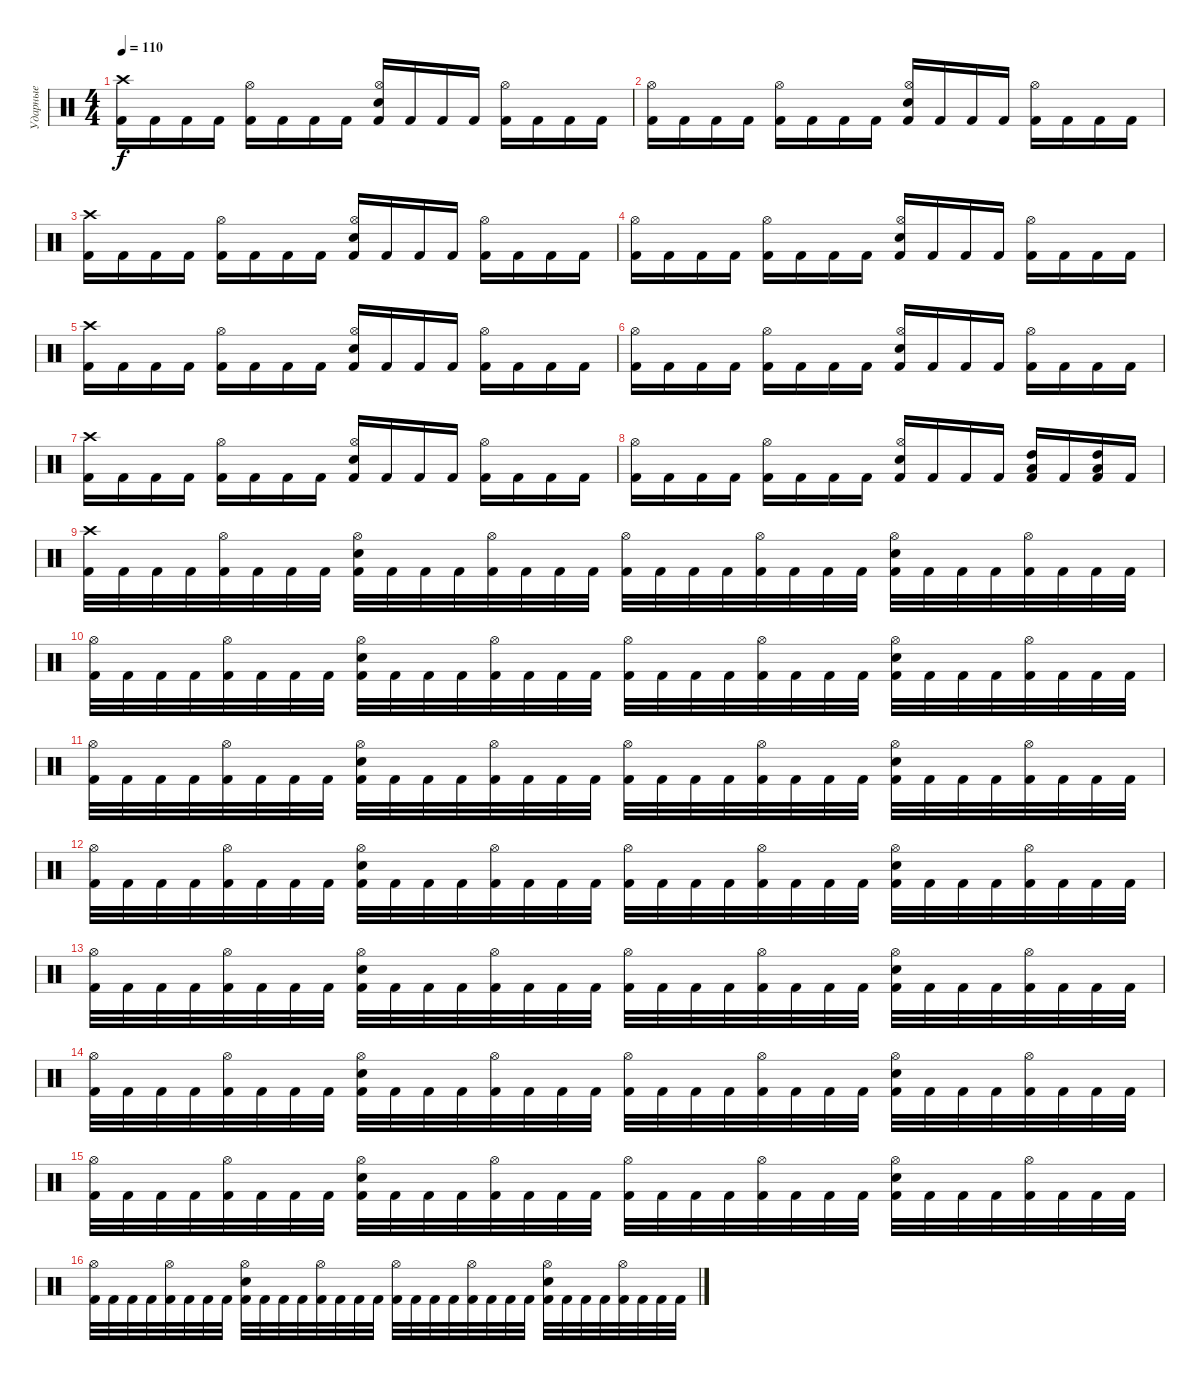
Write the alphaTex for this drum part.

\track ("Ударные" "Ударные") {instrument percussion}
\staff {score}
\articulation defaults
\ts (4 4)
\tempo 110
\clef neutral
\ks c
("Kick (hit) 2" "Crash high (hit)").16{dy f} "Kick (hit) 2".16 "Kick (hit) 2".16 "Kick (hit) 2".16 ("Kick (hit) 2" "Hi-Hat (open)").16 "Kick (hit) 2".16 "Kick (hit) 2".16 "Kick (hit) 2".16 ("Kick (hit) 2" "Hi-Hat (open)" "Snare (hit) 2").16 "Kick (hit) 2".16 "Kick (hit) 2".16 "Kick (hit) 2".16 ("Kick (hit) 2" "Hi-Hat (open)").16 "Kick (hit) 2".16 "Kick (hit) 2".16 "Kick (hit) 2".16 |
("Kick (hit) 2" "Hi-Hat (open)").16 "Kick (hit) 2".16 "Kick (hit) 2".16 "Kick (hit) 2".16 ("Kick (hit) 2" "Hi-Hat (open)").16 "Kick (hit) 2".16 "Kick (hit) 2".16 "Kick (hit) 2".16 ("Kick (hit) 2" "Hi-Hat (open)" "Snare (hit) 2").16 "Kick (hit) 2".16 "Kick (hit) 2".16 "Kick (hit) 2".16 ("Kick (hit) 2" "Hi-Hat (open)").16 "Kick (hit) 2".16 "Kick (hit) 2".16 "Kick (hit) 2".16 |
("Kick (hit) 2" "Crash high (hit)").16 "Kick (hit) 2".16 "Kick (hit) 2".16 "Kick (hit) 2".16 ("Kick (hit) 2" "Hi-Hat (open)").16 "Kick (hit) 2".16 "Kick (hit) 2".16 "Kick (hit) 2".16 ("Kick (hit) 2" "Hi-Hat (open)" "Snare (hit) 2").16 "Kick (hit) 2".16 "Kick (hit) 2".16 "Kick (hit) 2".16 ("Kick (hit) 2" "Hi-Hat (open)").16 "Kick (hit) 2".16 "Kick (hit) 2".16 "Kick (hit) 2".16 |
("Kick (hit) 2" "Hi-Hat (open)").16 "Kick (hit) 2".16 "Kick (hit) 2".16 "Kick (hit) 2".16 ("Kick (hit) 2" "Hi-Hat (open)").16 "Kick (hit) 2".16 "Kick (hit) 2".16 "Kick (hit) 2".16 ("Kick (hit) 2" "Hi-Hat (open)" "Snare (hit) 2").16 "Kick (hit) 2".16 "Kick (hit) 2".16 "Kick (hit) 2".16 ("Kick (hit) 2" "Hi-Hat (open)").16 "Kick (hit) 2".16 "Kick (hit) 2".16 "Kick (hit) 2".16 |
("Kick (hit) 2" "Crash high (hit)").16 "Kick (hit) 2".16 "Kick (hit) 2".16 "Kick (hit) 2".16 ("Kick (hit) 2" "Hi-Hat (open)").16 "Kick (hit) 2".16 "Kick (hit) 2".16 "Kick (hit) 2".16 ("Kick (hit) 2" "Hi-Hat (open)" "Snare (hit) 2").16 "Kick (hit) 2".16 "Kick (hit) 2".16 "Kick (hit) 2".16 ("Kick (hit) 2" "Hi-Hat (open)").16 "Kick (hit) 2".16 "Kick (hit) 2".16 "Kick (hit) 2".16 |
("Kick (hit) 2" "Hi-Hat (open)").16 "Kick (hit) 2".16 "Kick (hit) 2".16 "Kick (hit) 2".16 ("Kick (hit) 2" "Hi-Hat (open)").16 "Kick (hit) 2".16 "Kick (hit) 2".16 "Kick (hit) 2".16 ("Kick (hit) 2" "Hi-Hat (open)" "Snare (hit) 2").16 "Kick (hit) 2".16 "Kick (hit) 2".16 "Kick (hit) 2".16 ("Kick (hit) 2" "Hi-Hat (open)").16 "Kick (hit) 2".16 "Kick (hit) 2".16 "Kick (hit) 2".16 |
("Kick (hit) 2" "Crash high (hit)").16 "Kick (hit) 2".16 "Kick (hit) 2".16 "Kick (hit) 2".16 ("Kick (hit) 2" "Hi-Hat (open)").16 "Kick (hit) 2".16 "Kick (hit) 2".16 "Kick (hit) 2".16 ("Kick (hit) 2" "Hi-Hat (open)" "Snare (hit) 2").16 "Kick (hit) 2".16 "Kick (hit) 2".16 "Kick (hit) 2".16 ("Kick (hit) 2" "Hi-Hat (open)").16 "Kick (hit) 2".16 "Kick (hit) 2".16 "Kick (hit) 2".16 |
("Kick (hit) 2" "Hi-Hat (open)").16 "Kick (hit) 2".16 "Kick (hit) 2".16 "Kick (hit) 2".16 ("Kick (hit) 2" "Hi-Hat (open)").16 "Kick (hit) 2".16 "Kick (hit) 2".16 "Kick (hit) 2".16 ("Kick (hit) 2" "Hi-Hat (open)" "Snare (hit) 2").16 "Kick (hit) 2".16 "Kick (hit) 2".16 "Kick (hit) 2".16 ("Kick (hit) 2" "Low Tom (hit)" "High Tom (hit)").16 "Kick (hit) 2".16 ("Kick (hit) 2" "Low Tom (hit)" "High Tom (hit)").16 "Kick (hit) 2".16 |
("Kick (hit) 2" "Crash high (hit)").32 "Kick (hit) 2".32 "Kick (hit) 2".32 "Kick (hit) 2".32 ("Kick (hit) 2" "Hi-Hat (open)").32 "Kick (hit) 2".32 "Kick (hit) 2".32 "Kick (hit) 2".32 ("Kick (hit) 2" "Snare (hit) 2" "Hi-Hat (open)").32 "Kick (hit) 2".32 "Kick (hit) 2".32 "Kick (hit) 2".32 ("Kick (hit) 2" "Hi-Hat (open)").32 "Kick (hit) 2".32 "Kick (hit) 2".32 "Kick (hit) 2".32 ("Kick (hit) 2" "Hi-Hat (open)").32 "Kick (hit) 2".32 "Kick (hit) 2".32 "Kick (hit) 2".32 ("Kick (hit) 2" "Hi-Hat (open)").32 "Kick (hit) 2".32 "Kick (hit) 2".32 "Kick (hit) 2".32 ("Kick (hit) 2" "Snare (hit) 2" "Hi-Hat (open)").32 "Kick (hit) 2".32 "Kick (hit) 2".32 "Kick (hit) 2".32 ("Kick (hit) 2" "Hi-Hat (open)").32 "Kick (hit) 2".32 "Kick (hit) 2".32 "Kick (hit) 2".32 |
("Kick (hit) 2" "Hi-Hat (open)").32 "Kick (hit) 2".32 "Kick (hit) 2".32 "Kick (hit) 2".32 ("Kick (hit) 2" "Hi-Hat (open)").32 "Kick (hit) 2".32 "Kick (hit) 2".32 "Kick (hit) 2".32 ("Kick (hit) 2" "Snare (hit) 2" "Hi-Hat (open)").32 "Kick (hit) 2".32 "Kick (hit) 2".32 "Kick (hit) 2".32 ("Kick (hit) 2" "Hi-Hat (open)").32 "Kick (hit) 2".32 "Kick (hit) 2".32 "Kick (hit) 2".32 ("Kick (hit) 2" "Hi-Hat (open)").32 "Kick (hit) 2".32 "Kick (hit) 2".32 "Kick (hit) 2".32 ("Kick (hit) 2" "Hi-Hat (open)").32 "Kick (hit) 2".32 "Kick (hit) 2".32 "Kick (hit) 2".32 ("Kick (hit) 2" "Snare (hit) 2" "Hi-Hat (open)").32 "Kick (hit) 2".32 "Kick (hit) 2".32 "Kick (hit) 2".32 ("Kick (hit) 2" "Hi-Hat (open)").32 "Kick (hit) 2".32 "Kick (hit) 2".32 "Kick (hit) 2".32 |
("Kick (hit) 2" "Hi-Hat (open)").32 "Kick (hit) 2".32 "Kick (hit) 2".32 "Kick (hit) 2".32 ("Kick (hit) 2" "Hi-Hat (open)").32 "Kick (hit) 2".32 "Kick (hit) 2".32 "Kick (hit) 2".32 ("Kick (hit) 2" "Snare (hit) 2" "Hi-Hat (open)").32 "Kick (hit) 2".32 "Kick (hit) 2".32 "Kick (hit) 2".32 ("Kick (hit) 2" "Hi-Hat (open)").32 "Kick (hit) 2".32 "Kick (hit) 2".32 "Kick (hit) 2".32 ("Kick (hit) 2" "Hi-Hat (open)").32 "Kick (hit) 2".32 "Kick (hit) 2".32 "Kick (hit) 2".32 ("Kick (hit) 2" "Hi-Hat (open)").32 "Kick (hit) 2".32 "Kick (hit) 2".32 "Kick (hit) 2".32 ("Kick (hit) 2" "Snare (hit) 2" "Hi-Hat (open)").32 "Kick (hit) 2".32 "Kick (hit) 2".32 "Kick (hit) 2".32 ("Kick (hit) 2" "Hi-Hat (open)").32 "Kick (hit) 2".32 "Kick (hit) 2".32 "Kick (hit) 2".32 |
("Kick (hit) 2" "Hi-Hat (open)").32 "Kick (hit) 2".32 "Kick (hit) 2".32 "Kick (hit) 2".32 ("Kick (hit) 2" "Hi-Hat (open)").32 "Kick (hit) 2".32 "Kick (hit) 2".32 "Kick (hit) 2".32 ("Kick (hit) 2" "Snare (hit) 2" "Hi-Hat (open)").32 "Kick (hit) 2".32 "Kick (hit) 2".32 "Kick (hit) 2".32 ("Kick (hit) 2" "Hi-Hat (open)").32 "Kick (hit) 2".32 "Kick (hit) 2".32 "Kick (hit) 2".32 ("Kick (hit) 2" "Hi-Hat (open)").32 "Kick (hit) 2".32 "Kick (hit) 2".32 "Kick (hit) 2".32 ("Kick (hit) 2" "Hi-Hat (open)").32 "Kick (hit) 2".32 "Kick (hit) 2".32 "Kick (hit) 2".32 ("Kick (hit) 2" "Snare (hit) 2" "Hi-Hat (open)").32 "Kick (hit) 2".32 "Kick (hit) 2".32 "Kick (hit) 2".32 ("Kick (hit) 2" "Hi-Hat (open)").32 "Kick (hit) 2".32 "Kick (hit) 2".32 "Kick (hit) 2".32 |
("Kick (hit) 2" "Hi-Hat (open)").32 "Kick (hit) 2".32 "Kick (hit) 2".32 "Kick (hit) 2".32 ("Kick (hit) 2" "Hi-Hat (open)").32 "Kick (hit) 2".32 "Kick (hit) 2".32 "Kick (hit) 2".32 ("Kick (hit) 2" "Snare (hit) 2" "Hi-Hat (open)").32 "Kick (hit) 2".32 "Kick (hit) 2".32 "Kick (hit) 2".32 ("Kick (hit) 2" "Hi-Hat (open)").32 "Kick (hit) 2".32 "Kick (hit) 2".32 "Kick (hit) 2".32 ("Kick (hit) 2" "Hi-Hat (open)").32 "Kick (hit) 2".32 "Kick (hit) 2".32 "Kick (hit) 2".32 ("Kick (hit) 2" "Hi-Hat (open)").32 "Kick (hit) 2".32 "Kick (hit) 2".32 "Kick (hit) 2".32 ("Kick (hit) 2" "Snare (hit) 2" "Hi-Hat (open)").32 "Kick (hit) 2".32 "Kick (hit) 2".32 "Kick (hit) 2".32 ("Kick (hit) 2" "Hi-Hat (open)").32 "Kick (hit) 2".32 "Kick (hit) 2".32 "Kick (hit) 2".32 |
("Kick (hit) 2" "Hi-Hat (open)").32 "Kick (hit) 2".32 "Kick (hit) 2".32 "Kick (hit) 2".32 ("Kick (hit) 2" "Hi-Hat (open)").32 "Kick (hit) 2".32 "Kick (hit) 2".32 "Kick (hit) 2".32 ("Kick (hit) 2" "Snare (hit) 2" "Hi-Hat (open)").32 "Kick (hit) 2".32 "Kick (hit) 2".32 "Kick (hit) 2".32 ("Kick (hit) 2" "Hi-Hat (open)").32 "Kick (hit) 2".32 "Kick (hit) 2".32 "Kick (hit) 2".32 ("Kick (hit) 2" "Hi-Hat (open)").32 "Kick (hit) 2".32 "Kick (hit) 2".32 "Kick (hit) 2".32 ("Kick (hit) 2" "Hi-Hat (open)").32 "Kick (hit) 2".32 "Kick (hit) 2".32 "Kick (hit) 2".32 ("Kick (hit) 2" "Snare (hit) 2" "Hi-Hat (open)").32 "Kick (hit) 2".32 "Kick (hit) 2".32 "Kick (hit) 2".32 ("Kick (hit) 2" "Hi-Hat (open)").32 "Kick (hit) 2".32 "Kick (hit) 2".32 "Kick (hit) 2".32 |
("Kick (hit) 2" "Hi-Hat (open)").32 "Kick (hit) 2".32 "Kick (hit) 2".32 "Kick (hit) 2".32 ("Kick (hit) 2" "Hi-Hat (open)").32 "Kick (hit) 2".32 "Kick (hit) 2".32 "Kick (hit) 2".32 ("Kick (hit) 2" "Snare (hit) 2" "Hi-Hat (open)").32 "Kick (hit) 2".32 "Kick (hit) 2".32 "Kick (hit) 2".32 ("Kick (hit) 2" "Hi-Hat (open)").32 "Kick (hit) 2".32 "Kick (hit) 2".32 "Kick (hit) 2".32 ("Kick (hit) 2" "Hi-Hat (open)").32 "Kick (hit) 2".32 "Kick (hit) 2".32 "Kick (hit) 2".32 ("Kick (hit) 2" "Hi-Hat (open)").32 "Kick (hit) 2".32 "Kick (hit) 2".32 "Kick (hit) 2".32 ("Kick (hit) 2" "Snare (hit) 2" "Hi-Hat (open)").32 "Kick (hit) 2".32 "Kick (hit) 2".32 "Kick (hit) 2".32 ("Kick (hit) 2" "Hi-Hat (open)").32 "Kick (hit) 2".32 "Kick (hit) 2".32 "Kick (hit) 2".32 |
("Kick (hit) 2" "Hi-Hat (open)").32 "Kick (hit) 2".32 "Kick (hit) 2".32 "Kick (hit) 2".32 ("Kick (hit) 2" "Hi-Hat (open)").32 "Kick (hit) 2".32 "Kick (hit) 2".32 "Kick (hit) 2".32 ("Kick (hit) 2" "Snare (hit) 2" "Hi-Hat (open)").32 "Kick (hit) 2".32 "Kick (hit) 2".32 "Kick (hit) 2".32 ("Kick (hit) 2" "Hi-Hat (open)").32 "Kick (hit) 2".32 "Kick (hit) 2".32 "Kick (hit) 2".32 ("Kick (hit) 2" "Hi-Hat (open)").32 "Kick (hit) 2".32 "Kick (hit) 2".32 "Kick (hit) 2".32 ("Kick (hit) 2" "Hi-Hat (open)").32 "Kick (hit) 2".32 "Kick (hit) 2".32 "Kick (hit) 2".32 ("Kick (hit) 2" "Snare (hit) 2" "Hi-Hat (open)").32 "Kick (hit) 2".32 "Kick (hit) 2".32 "Kick (hit) 2".32 ("Kick (hit) 2" "Hi-Hat (open)").32 "Kick (hit) 2".32 "Kick (hit) 2".32 "Kick (hit) 2".32
